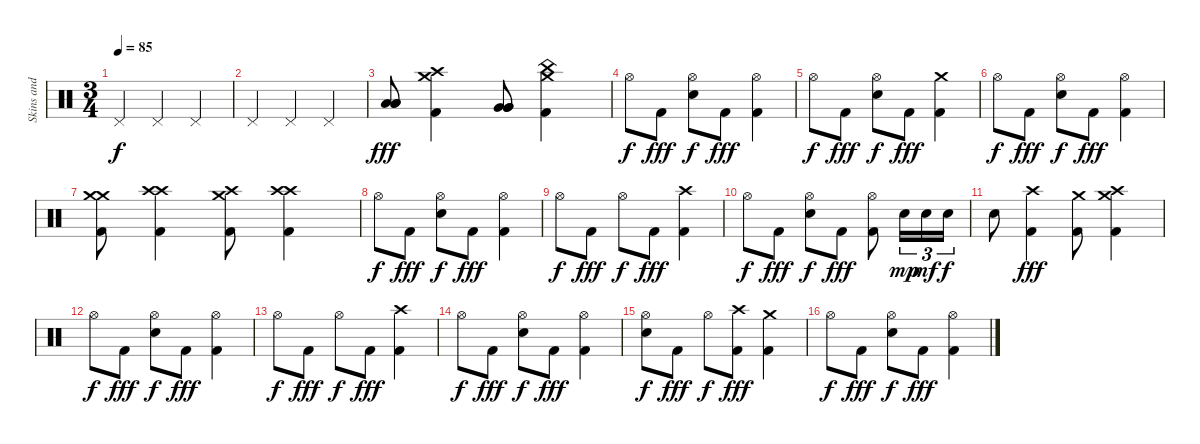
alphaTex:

\track ("Skins and Cymbals" "Skins and ") {instrument percussion}
\staff {score}
\articulation defaults
\ts (3 4)
\tempo 85
\clef neutral
\ks c "Pedal Hi-Hat (hit)".4{dy f} "Pedal Hi-Hat (hit)".4 "Pedal Hi-Hat (hit)".4
|
"Pedal Hi-Hat (hit)".4 "Pedal Hi-Hat (hit)".4 "Pedal Hi-Hat (hit)".4 |
("Low Tom (hit)" "Low Tom (hit)" "Low Tom (hit)").8{dy fff} ("Crash high (hit)" "Crash medium (hit)" "Kick (hit) 2").4 ("Very Low Tom (hit)" "Very Low Tom (hit)" "Very Low Tom (hit)").8 ("Crash medium (hit)" "China (hit)" "Kick (hit) 2").4 |
"Hi-Hat (open)".8{dy f} "Kick (hit) 2".8{dy fff} ("Hi-Hat (open)" "Electric Snare (hit)").8{dy f} "Kick (hit) 2".8{dy fff} ("Hi-Hat (open)" "Kick (hit) 2").4 |
"Hi-Hat (open)".8{dy f} "Kick (hit) 2".8{dy fff} ("Hi-Hat (open)" "Electric Snare (hit)").8{dy f} "Kick (hit) 2".8{dy fff} ("Crash medium (hit)" "Kick (hit) 2").4 |
"Hi-Hat (open)".8{dy f} "Kick (hit) 2".8{dy fff} ("Hi-Hat (open)" "Electric Snare (hit)").8{dy f} "Kick (hit) 2".8{dy fff} ("Hi-Hat (open)" "Kick (hit) 2").4 |
("Crash medium (hit)" "Crash medium (hit)" "Kick (hit) 2").8 ("Crash high (hit)" "Crash high (hit)" "Kick (hit) 2").4 ("Crash high (hit)" "Crash medium (hit)" "Kick (hit) 2").8 ("Crash high (hit)" "Crash high (hit)" "Kick (hit) 2").4 |
"Hi-Hat (open)".8{dy f} "Kick (hit) 2".8{dy fff} ("Hi-Hat (open)" "Electric Snare (hit)").8{dy f} "Kick (hit) 2".8{dy fff} ("Hi-Hat (open)" "Kick (hit) 2").4 |
"Hi-Hat (open)".8{dy f} "Kick (hit) 2".8{dy fff} "Hi-Hat (open)".8{dy f} "Kick (hit) 2".8{dy fff} ("Crash high (hit)" "Kick (hit) 2").4 |
"Hi-Hat (open)".8{dy f} "Kick (hit) 2".8{dy fff} ("Hi-Hat (open)" "Electric Snare (hit)").8{dy f} "Kick (hit) 2".8{dy fff} ("Hi-Hat (open)" "Kick (hit) 2").8 "Electric Snare (hit)".16{tu (3 2) dy mp} "Electric Snare (hit)".16{tu (3 2) dy mf} "Electric Snare (hit)".16{tu (3 2) dy f} |
"Electric Snare (hit)".8 ("Crash high (hit)" "Kick (hit) 2").4{dy fff} ("Crash medium (hit)" "Kick (hit) 2").8 ("Crash high (hit)" "Crash medium (hit)" "Kick (hit) 2").4 |
"Hi-Hat (open)".8{dy f} "Kick (hit) 2".8{dy fff} ("Hi-Hat (open)" "Electric Snare (hit)").8{dy f} "Kick (hit) 2".8{dy fff} ("Hi-Hat (open)" "Kick (hit) 2").4 |
"Hi-Hat (open)".8{dy f} "Kick (hit) 2".8{dy fff} "Hi-Hat (open)".8{dy f} "Kick (hit) 2".8{dy fff} ("Crash high (hit)" "Kick (hit) 2").4 |
"Hi-Hat (open)".8{dy f} "Kick (hit) 2".8{dy fff} ("Hi-Hat (open)" "Electric Snare (hit)").8{dy f} "Kick (hit) 2".8{dy fff} ("Hi-Hat (open)" "Kick (hit) 2").4 |
("Hi-Hat (open)" "Electric Snare (hit)").8{dy f} "Kick (hit) 2".8{dy fff} "Hi-Hat (open)".8{dy f} ("Crash high (hit)" "Kick (hit) 2").8{dy fff} ("Crash medium (hit)" "Kick (hit) 2").4 |
"Hi-Hat (open)".8{dy f} "Kick (hit) 2".8{dy fff} ("Hi-Hat (open)" "Electric Snare (hit)").8{dy f} "Kick (hit) 2".8{dy fff} ("Hi-Hat (open)" "Kick (hit) 2").4
